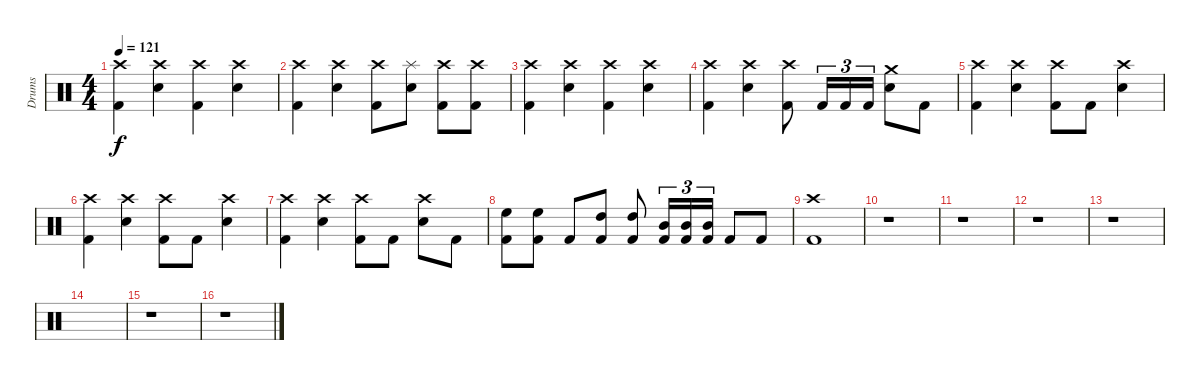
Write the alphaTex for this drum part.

\track ("Drums" "Drums") {instrument percussion}
\staff {score}
\articulation defaults
\ts (4 4)
\tempo 121
\clef neutral
\ks c
("Crash high (hit)" "Kick (hit) 2").4{dy f} ("Crash high (hit)" "Electric Snare (hit)").4 ("Crash high (hit)" "Kick (hit) 2").4 ("Crash high (hit)" "Electric Snare (hit)").4 |
("Crash high (hit)" "Kick (hit) 2").4 ("Crash high (hit)" "Electric Snare (hit)").4 ("Crash high (hit)" "Kick (hit) 2").8 ("Splash (hit)" "Electric Snare (hit)").8 ("Crash high (hit)" "Kick (hit) 2").8 ("Crash high (hit)" "Kick (hit) 2").8 |
("Crash high (hit)" "Kick (hit) 2").4 ("Crash high (hit)" "Electric Snare (hit)").4 ("Crash high (hit)" "Kick (hit) 2").4 ("Crash high (hit)" "Electric Snare (hit)").4 |
("Crash high (hit)" "Kick (hit) 2").4 ("Crash high (hit)" "Electric Snare (hit)").4 ("Crash high (hit)" "Kick (hit) 2").8 "Kick (hit) 2".16{tu (3 2)} "Kick (hit) 2".16{tu (3 2)} "Kick (hit) 2".16{tu (3 2)} ("Crash medium (hit)" "Electric Snare (hit)").8 "Kick (hit) 2".8 |
("Crash high (hit)" "Kick (hit) 2").4 ("Crash high (hit)" "Electric Snare (hit)").4 ("Crash high (hit)" "Kick (hit) 2").8 "Kick (hit) 2".8 ("Crash high (hit)" "Electric Snare (hit)").4 |
("Crash high (hit)" "Kick (hit) 2").4 ("Crash high (hit)" "Electric Snare (hit)").4 ("Crash high (hit)" "Kick (hit) 2").8 "Kick (hit) 2".8 ("Crash high (hit)" "Electric Snare (hit)").4 |
("Crash high (hit)" "Kick (hit) 2").4 ("Crash high (hit)" "Electric Snare (hit)").4 ("Crash high (hit)" "Kick (hit) 2").8 "Kick (hit) 2".8 ("Crash high (hit)" "Electric Snare (hit)").8 "Kick (hit) 2".8 |
("High Floor Tom (hit)" "Kick (hit) 2").8 ("High Floor Tom (hit)" "Kick (hit) 2").8 "Kick (hit) 2".8 ("High Tom (hit)" "Kick (hit) 2").8 ("High Tom (hit)" "Kick (hit) 2").8 ("Mid Tom (hit)" "Kick (hit) 2").16{tu (3 2)} ("Mid Tom (hit)" "Kick (hit) 2").16{tu (3 2)} ("Mid Tom (hit)" "Kick (hit) 2").16{tu (3 2)} "Kick (hit) 2".8 "Kick (hit) 2".8 |
("Crash high (hit)" "Kick (hit) 2").1 |
r.1 |
r.1 |
r.1 |
r.1 |
|
r.1 |
r.1
